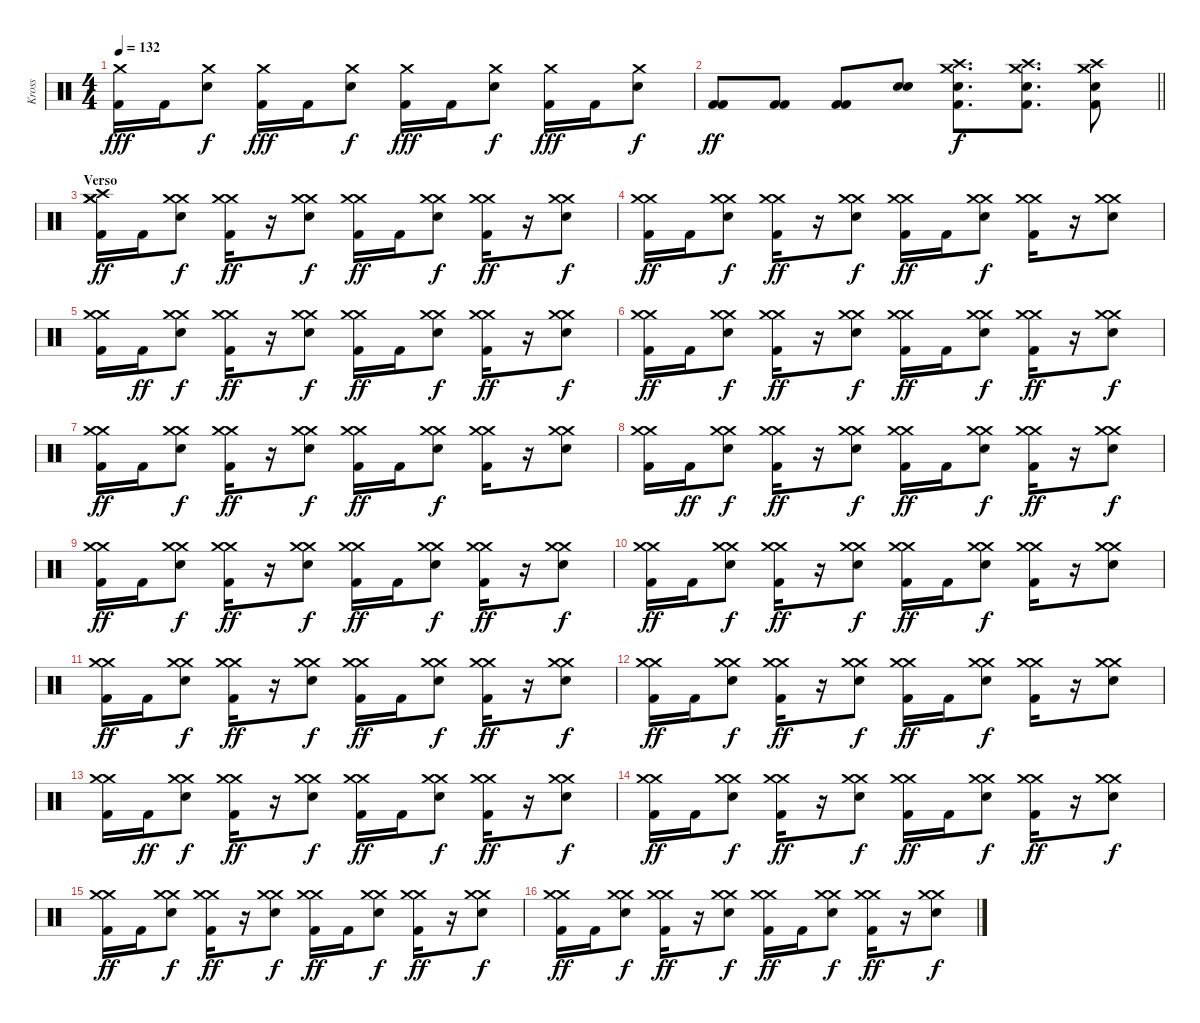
\track ("Kross" "Kross") {instrument percussion}
\staff {score}
\articulation defaults
\ts (4 4)
\tempo 132
\clef neutral
\ks c
("Kick (hit) 2" "Crash medium (hit)").16{dy fff} "Kick (hit) 2".16 ("Crash medium (hit)" "Electric Snare (hit)").8{dy f} ("Kick (hit) 2" "Crash medium (hit)").16{dy fff} "Kick (hit) 2".16 ("Crash medium (hit)" "Electric Snare (hit)").8{dy f} ("Kick (hit) 2" "Crash medium (hit)").16{dy fff} "Kick (hit) 2".16 ("Crash medium (hit)" "Electric Snare (hit)").8{dy f} ("Kick (hit) 2" "Crash medium (hit)").16{dy fff} "Kick (hit) 2".16 ("Crash medium (hit)" "Electric Snare (hit)").8{dy f} |
\barLineRight lightlight
("Kick (hit) 2" "Kick (hit) 2").8{dy ff} ("Kick (hit) 2" "Kick (hit) 2").8 ("Kick (hit) 2" "Kick (hit) 2").8 ("Electric Snare (hit)" "Electric Snare (hit)").8 ("Kick (hit) 2" "Crash high (hit)" "Crash medium (hit)" "Electric Snare (hit)").8{d dy f} ("Kick (hit) 2" "Crash high (hit)" "Crash medium (hit)" "Electric Snare (hit)").8{d} ("Kick (hit) 2" "Crash high (hit)" "Crash medium (hit)" "Electric Snare (hit)").8 |
\section ("" "Verso")
("Crash high (hit)" "Kick (hit) 2" "Crash medium (hit)" "Crash medium (hit)").16{dy ff} "Kick (hit) 2".16 ("Crash medium (hit)" "Crash medium (hit)" "Electric Snare (hit)").8{dy f} ("Kick (hit) 2" "Crash medium (hit)" "Crash medium (hit)").16{dy ff} r.16 ("Crash medium (hit)" "Crash medium (hit)" "Electric Snare (hit)").8{dy f} ("Kick (hit) 2" "Crash medium (hit)" "Crash medium (hit)").16{dy ff} "Kick (hit) 2".16 ("Crash medium (hit)" "Crash medium (hit)" "Electric Snare (hit)").8{dy f} ("Kick (hit) 2" "Crash medium (hit)" "Crash medium (hit)").16{dy ff} r.16 ("Crash medium (hit)" "Crash medium (hit)" "Electric Snare (hit)").8{dy f} |
("Kick (hit) 2" "Crash medium (hit)" "Crash medium (hit)").16{dy ff} "Kick (hit) 2".16 ("Crash medium (hit)" "Crash medium (hit)" "Electric Snare (hit)").8{dy f} ("Kick (hit) 2" "Crash medium (hit)" "Crash medium (hit)").16{dy ff} r.16 ("Crash medium (hit)" "Crash medium (hit)" "Electric Snare (hit)").8{dy f} ("Kick (hit) 2" "Crash medium (hit)" "Crash medium (hit)").16{dy ff} "Kick (hit) 2".16 ("Crash medium (hit)" "Crash medium (hit)" "Electric Snare (hit)").8{dy f} ("Kick (hit) 2" "Crash medium (hit)" "Crash medium (hit)").16 r.16 ("Crash medium (hit)" "Crash medium (hit)" "Electric Snare (hit)").8 |
("Kick (hit) 2" "Crash medium (hit)" "Crash medium (hit)").16 "Kick (hit) 2".16{dy ff} ("Crash medium (hit)" "Crash medium (hit)" "Electric Snare (hit)").8{dy f} ("Kick (hit) 2" "Crash medium (hit)" "Crash medium (hit)").16{dy ff} r.16 ("Crash medium (hit)" "Crash medium (hit)" "Electric Snare (hit)").8{dy f} ("Kick (hit) 2" "Crash medium (hit)" "Crash medium (hit)").16{dy ff} "Kick (hit) 2".16 ("Crash medium (hit)" "Crash medium (hit)" "Electric Snare (hit)").8{dy f} ("Kick (hit) 2" "Crash medium (hit)" "Crash medium (hit)").16{dy ff} r.16 ("Crash medium (hit)" "Crash medium (hit)" "Electric Snare (hit)").8{dy f} |
("Kick (hit) 2" "Crash medium (hit)" "Crash medium (hit)").16{dy ff} "Kick (hit) 2".16 ("Crash medium (hit)" "Crash medium (hit)" "Electric Snare (hit)").8{dy f} ("Kick (hit) 2" "Crash medium (hit)" "Crash medium (hit)").16{dy ff} r.16 ("Crash medium (hit)" "Crash medium (hit)" "Electric Snare (hit)").8{dy f} ("Kick (hit) 2" "Crash medium (hit)" "Crash medium (hit)").16{dy ff} "Kick (hit) 2".16 ("Crash medium (hit)" "Crash medium (hit)" "Electric Snare (hit)").8{dy f} ("Kick (hit) 2" "Crash medium (hit)" "Crash medium (hit)").16{dy ff} r.16 ("Crash medium (hit)" "Crash medium (hit)" "Electric Snare (hit)").8{dy f} |
("Kick (hit) 2" "Crash medium (hit)" "Crash medium (hit)").16{dy ff} "Kick (hit) 2".16 ("Crash medium (hit)" "Crash medium (hit)" "Electric Snare (hit)").8{dy f} ("Kick (hit) 2" "Crash medium (hit)" "Crash medium (hit)").16{dy ff} r.16 ("Crash medium (hit)" "Crash medium (hit)" "Electric Snare (hit)").8{dy f} ("Kick (hit) 2" "Crash medium (hit)" "Crash medium (hit)").16{dy ff} "Kick (hit) 2".16 ("Crash medium (hit)" "Crash medium (hit)" "Electric Snare (hit)").8{dy f} ("Kick (hit) 2" "Crash medium (hit)" "Crash medium (hit)").16 r.16 ("Crash medium (hit)" "Crash medium (hit)" "Electric Snare (hit)").8 |
("Kick (hit) 2" "Crash medium (hit)" "Crash medium (hit)").16 "Kick (hit) 2".16{dy ff} ("Crash medium (hit)" "Crash medium (hit)" "Electric Snare (hit)").8{dy f} ("Kick (hit) 2" "Crash medium (hit)" "Crash medium (hit)").16{dy ff} r.16 ("Crash medium (hit)" "Crash medium (hit)" "Electric Snare (hit)").8{dy f} ("Kick (hit) 2" "Crash medium (hit)" "Crash medium (hit)").16{dy ff} "Kick (hit) 2".16 ("Crash medium (hit)" "Crash medium (hit)" "Electric Snare (hit)").8{dy f} ("Kick (hit) 2" "Crash medium (hit)" "Crash medium (hit)").16{dy ff} r.16 ("Crash medium (hit)" "Crash medium (hit)" "Electric Snare (hit)").8{dy f} |
("Kick (hit) 2" "Crash medium (hit)" "Crash medium (hit)").16{dy ff} "Kick (hit) 2".16 ("Crash medium (hit)" "Crash medium (hit)" "Electric Snare (hit)").8{dy f} ("Kick (hit) 2" "Crash medium (hit)" "Crash medium (hit)").16{dy ff} r.16 ("Crash medium (hit)" "Crash medium (hit)" "Electric Snare (hit)").8{dy f} ("Kick (hit) 2" "Crash medium (hit)" "Crash medium (hit)").16{dy ff} "Kick (hit) 2".16 ("Crash medium (hit)" "Crash medium (hit)" "Electric Snare (hit)").8{dy f} ("Kick (hit) 2" "Crash medium (hit)" "Crash medium (hit)").16{dy ff} r.16 ("Crash medium (hit)" "Crash medium (hit)" "Electric Snare (hit)").8{dy f} |
("Kick (hit) 2" "Crash medium (hit)" "Crash medium (hit)").16{dy ff} "Kick (hit) 2".16 ("Crash medium (hit)" "Crash medium (hit)" "Electric Snare (hit)").8{dy f} ("Kick (hit) 2" "Crash medium (hit)" "Crash medium (hit)").16{dy ff} r.16 ("Crash medium (hit)" "Crash medium (hit)" "Electric Snare (hit)").8{dy f} ("Kick (hit) 2" "Crash medium (hit)" "Crash medium (hit)").16{dy ff} "Kick (hit) 2".16 ("Crash medium (hit)" "Crash medium (hit)" "Electric Snare (hit)").8{dy f} ("Kick (hit) 2" "Crash medium (hit)" "Crash medium (hit)").16 r.16 ("Crash medium (hit)" "Crash medium (hit)" "Electric Snare (hit)").8 |
("Kick (hit) 2" "Crash medium (hit)" "Crash medium (hit)").16{dy ff} "Kick (hit) 2".16 ("Crash medium (hit)" "Crash medium (hit)" "Electric Snare (hit)").8{dy f} ("Kick (hit) 2" "Crash medium (hit)" "Crash medium (hit)").16{dy ff} r.16 ("Crash medium (hit)" "Crash medium (hit)" "Electric Snare (hit)").8{dy f} ("Kick (hit) 2" "Crash medium (hit)" "Crash medium (hit)").16{dy ff} "Kick (hit) 2".16 ("Crash medium (hit)" "Crash medium (hit)" "Electric Snare (hit)").8{dy f} ("Kick (hit) 2" "Crash medium (hit)" "Crash medium (hit)").16{dy ff} r.16 ("Crash medium (hit)" "Crash medium (hit)" "Electric Snare (hit)").8{dy f} |
("Kick (hit) 2" "Crash medium (hit)" "Crash medium (hit)").16{dy ff} "Kick (hit) 2".16 ("Crash medium (hit)" "Crash medium (hit)" "Electric Snare (hit)").8{dy f} ("Kick (hit) 2" "Crash medium (hit)" "Crash medium (hit)").16{dy ff} r.16 ("Crash medium (hit)" "Crash medium (hit)" "Electric Snare (hit)").8{dy f} ("Kick (hit) 2" "Crash medium (hit)" "Crash medium (hit)").16{dy ff} "Kick (hit) 2".16 ("Crash medium (hit)" "Crash medium (hit)" "Electric Snare (hit)").8{dy f} ("Kick (hit) 2" "Crash medium (hit)" "Crash medium (hit)").16 r.16 ("Crash medium (hit)" "Crash medium (hit)" "Electric Snare (hit)").8 |
("Kick (hit) 2" "Crash medium (hit)" "Crash medium (hit)").16 "Kick (hit) 2".16{dy ff} ("Crash medium (hit)" "Crash medium (hit)" "Electric Snare (hit)").8{dy f} ("Kick (hit) 2" "Crash medium (hit)" "Crash medium (hit)").16{dy ff} r.16 ("Crash medium (hit)" "Crash medium (hit)" "Electric Snare (hit)").8{dy f} ("Kick (hit) 2" "Crash medium (hit)" "Crash medium (hit)").16{dy ff} "Kick (hit) 2".16 ("Crash medium (hit)" "Crash medium (hit)" "Electric Snare (hit)").8{dy f} ("Kick (hit) 2" "Crash medium (hit)" "Crash medium (hit)").16{dy ff} r.16 ("Crash medium (hit)" "Crash medium (hit)" "Electric Snare (hit)").8{dy f} |
("Kick (hit) 2" "Crash medium (hit)" "Crash medium (hit)").16{dy ff} "Kick (hit) 2".16 ("Crash medium (hit)" "Crash medium (hit)" "Electric Snare (hit)").8{dy f} ("Kick (hit) 2" "Crash medium (hit)" "Crash medium (hit)").16{dy ff} r.16 ("Crash medium (hit)" "Crash medium (hit)" "Electric Snare (hit)").8{dy f} ("Kick (hit) 2" "Crash medium (hit)" "Crash medium (hit)").16{dy ff} "Kick (hit) 2".16 ("Crash medium (hit)" "Crash medium (hit)" "Electric Snare (hit)").8{dy f} ("Kick (hit) 2" "Crash medium (hit)" "Crash medium (hit)").16{dy ff} r.16 ("Crash medium (hit)" "Crash medium (hit)" "Electric Snare (hit)").8{dy f} |
("Kick (hit) 2" "Crash medium (hit)" "Crash medium (hit)").16{dy ff} "Kick (hit) 2".16 ("Crash medium (hit)" "Crash medium (hit)" "Electric Snare (hit)").8{dy f} ("Kick (hit) 2" "Crash medium (hit)" "Crash medium (hit)").16{dy ff} r.16 ("Crash medium (hit)" "Crash medium (hit)" "Electric Snare (hit)").8{dy f} ("Kick (hit) 2" "Crash medium (hit)" "Crash medium (hit)").16{dy ff} "Kick (hit) 2".16 ("Crash medium (hit)" "Crash medium (hit)" "Electric Snare (hit)").8{dy f} ("Kick (hit) 2" "Crash medium (hit)" "Crash medium (hit)").16{dy ff} r.16 ("Crash medium (hit)" "Crash medium (hit)" "Electric Snare (hit)").8{dy f} |
("Kick (hit) 2" "Crash medium (hit)" "Crash medium (hit)").16{dy ff} "Kick (hit) 2".16 ("Crash medium (hit)" "Crash medium (hit)" "Electric Snare (hit)").8{dy f} ("Kick (hit) 2" "Crash medium (hit)" "Crash medium (hit)").16{dy ff} r.16 ("Crash medium (hit)" "Crash medium (hit)" "Electric Snare (hit)").8{dy f} ("Kick (hit) 2" "Crash medium (hit)" "Crash medium (hit)").16{dy ff} "Kick (hit) 2".16 ("Crash medium (hit)" "Crash medium (hit)" "Electric Snare (hit)").8{dy f} ("Kick (hit) 2" "Crash medium (hit)" "Crash medium (hit)").16{dy ff} r.16 ("Crash medium (hit)" "Crash medium (hit)" "Electric Snare (hit)").8{dy f}
